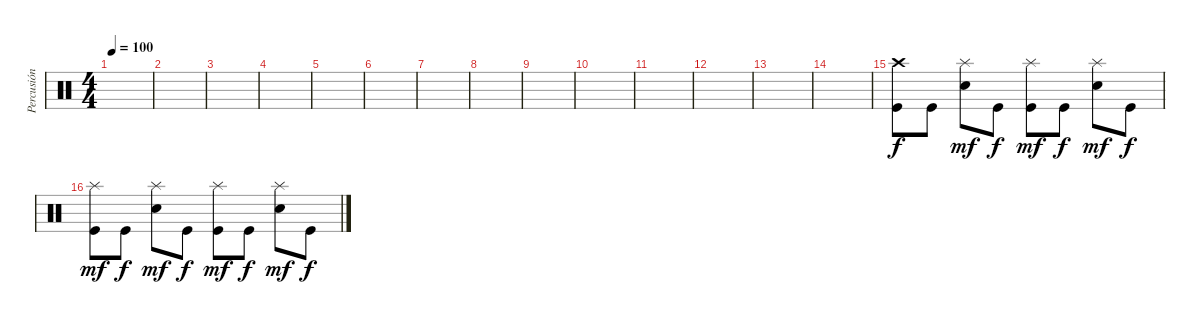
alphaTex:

\track ("Percusión" "Percusión") {instrument percussion}
\staff {score}
\articulation defaults
\ts (4 4)
\tempo 100
\clef neutral
\ks c
|
|
|
|
|
|
|
|
|
|
|
|
|
|
("Crash high (hit)" "Kick (hit)").8{dy f} "Kick (hit)".8 ("Splash (hit)" "Electric Snare (hit)").8{dy mf} "Kick (hit)".8{dy f} ("Splash (hit)" "Kick (hit)").8{dy mf} "Kick (hit)".8{dy f} ("Splash (hit)" "Electric Snare (hit)").8{dy mf} "Kick (hit)".8{dy f} |
("Splash (hit)" "Kick (hit)").8{dy mf} "Kick (hit)".8{dy f} ("Splash (hit)" "Electric Snare (hit)").8{dy mf} "Kick (hit)".8{dy f} ("Splash (hit)" "Kick (hit)").8{dy mf} "Kick (hit)".8{dy f} ("Splash (hit)" "Electric Snare (hit)").8{dy mf} "Kick (hit)".8{dy f}
